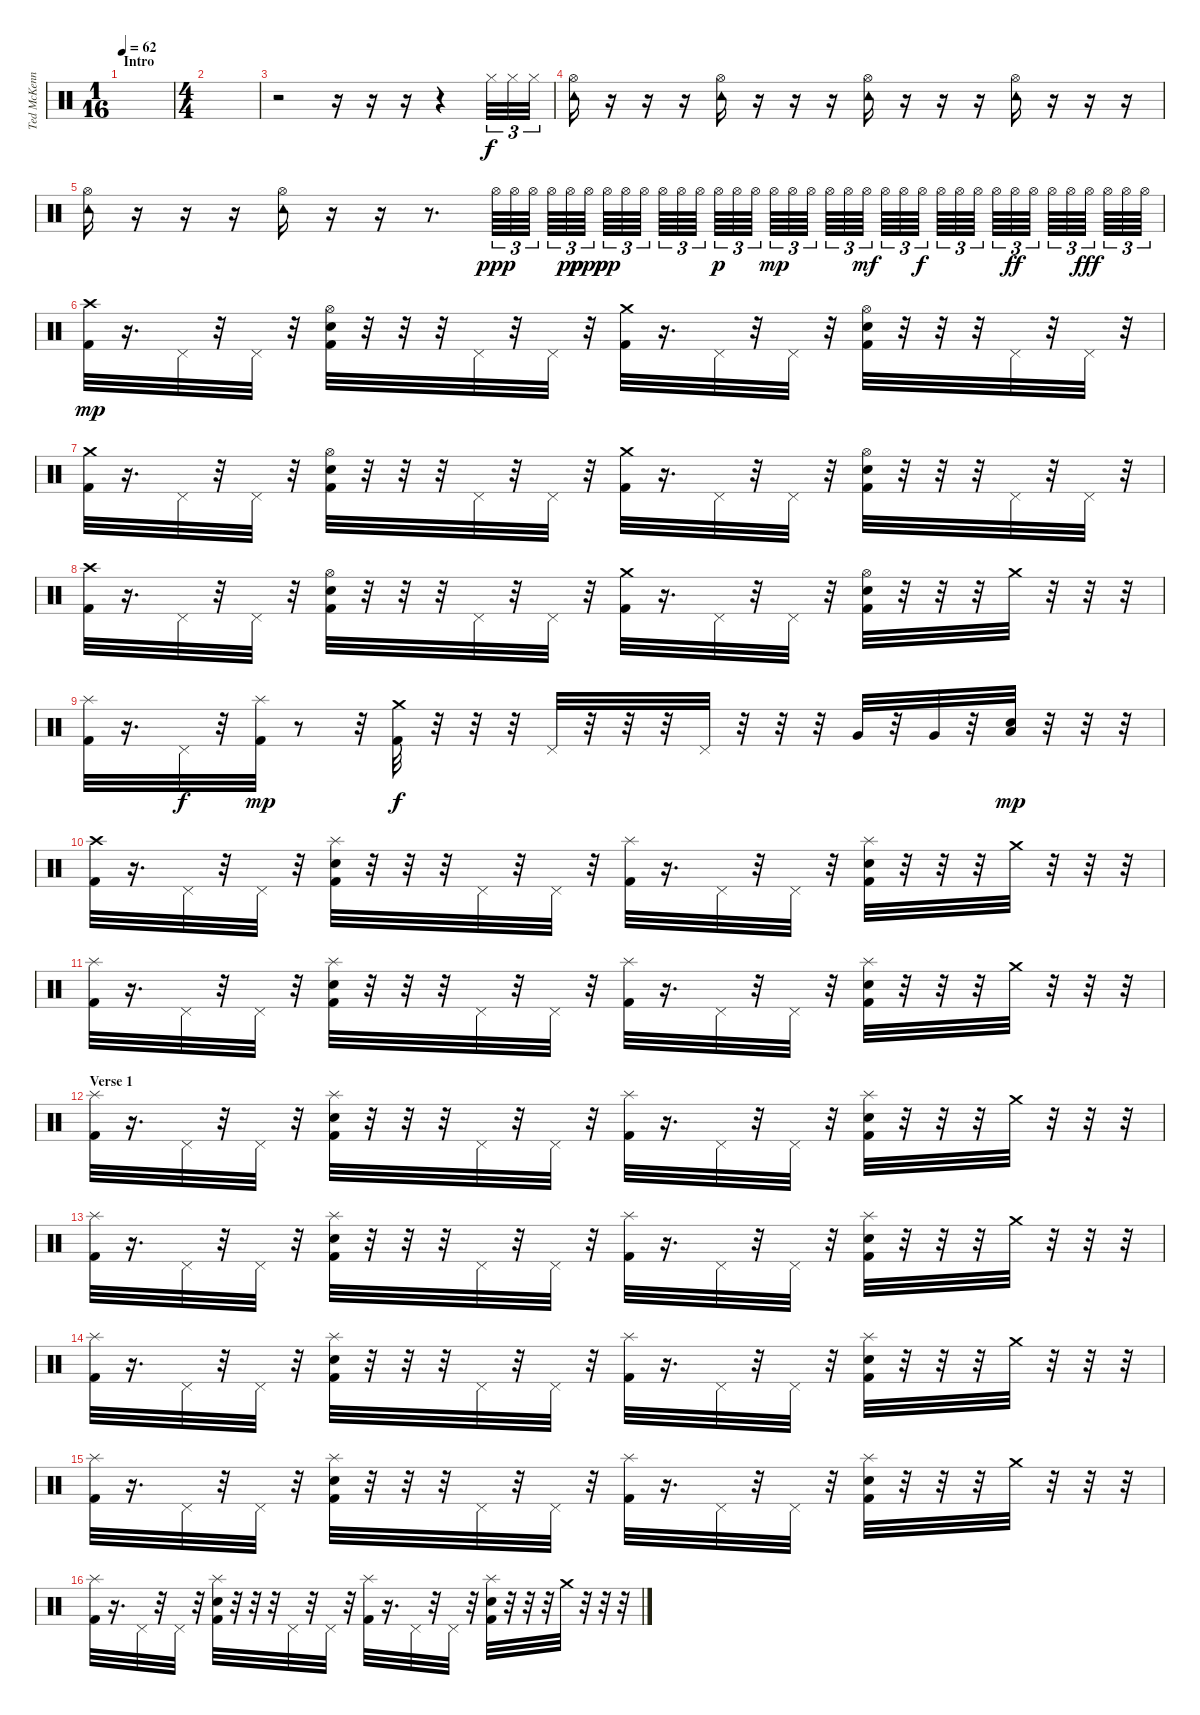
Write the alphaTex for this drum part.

\track ("Ted McKenna" "Ted McKenn") {instrument percussion}
\staff {score}
\articulation defaults
\ts (1 16)
\section ("" "Intro")
\tempo 62
\clef neutral
\ks c
|
\ts (4 4)
|
r.2 r.16 r.16 r.16 r.4 "Hi-Hat (closed)".32{tu (3 2)} "Hi-Hat (closed)".32{tu (3 2)} "Hi-Hat (closed)".32{tu (3 2)} |
("Tambourine (hit)" "Hi-Hat (open)").16 r.16 r.16 r.16 ("Tambourine (hit)" "Hi-Hat (open)").16 r.16 r.16 r.16 ("Tambourine (hit)" "Hi-Hat (open)").16 r.16 r.16 r.16 ("Tambourine (hit)" "Hi-Hat (open)").16 r.16 r.16 r.16 |
("Tambourine (hit)" "Hi-Hat (open)").16 r.16 r.16 r.16 ("Tambourine (hit)" "Hi-Hat (open)").16 r.16 r.16 r.8{d} "Hi-Hat (open)".64{tu (3 2) dy ppp} "Hi-Hat (open)".64{tu (3 2)} "Hi-Hat (open)".64{tu (3 2)} "Hi-Hat (open)".64{tu (3 2)} "Hi-Hat (open)".64{tu (3 2) dy pp} "Hi-Hat (open)".64{tu (3 2) dy ppp} "Hi-Hat (open)".64{tu (3 2) dy pp} "Hi-Hat (open)".64{tu (3 2)} "Hi-Hat (open)".64{tu (3 2)} "Hi-Hat (open)".64{tu (3 2)} "Hi-Hat (open)".64{tu (3 2)} "Hi-Hat (open)".64{tu (3 2)} "Hi-Hat (open)".64{tu (3 2) dy p} "Hi-Hat (open)".64{tu (3 2)} "Hi-Hat (open)".64{tu (3 2)} "Hi-Hat (open)".64{tu (3 2) dy mp} "Hi-Hat (open)".64{tu (3 2)} "Hi-Hat (open)".64{tu (3 2)} "Hi-Hat (open)".64{tu (3 2)} "Hi-Hat (open)".64{tu (3 2)} "Hi-Hat (open)".64{tu (3 2) dy mf} "Hi-Hat (open)".64{tu (3 2)} "Hi-Hat (open)".64{tu (3 2)} "Hi-Hat (open)".64{tu (3 2) dy f} "Hi-Hat (open)".64{tu (3 2)} "Hi-Hat (open)".64{tu (3 2)} "Hi-Hat (open)".64{tu (3 2)} "Hi-Hat (open)".64{tu (3 2)} "Hi-Hat (open)".64{tu (3 2) dy ff} "Hi-Hat (open)".64{tu (3 2)} "Hi-Hat (open)".64{tu (3 2)} "Hi-Hat (open)".64{tu (3 2)} "Hi-Hat (open)".64{tu (3 2) dy fff} "Hi-Hat (open)".64{tu (3 2)} "Hi-Hat (open)".64{tu (3 2)} "Hi-Hat (open)".64{tu (3 2)} |
("Crash high (hit)" "Kick (hit) 2").32{dy mp} r.16{d} "Pedal Hi-Hat (hit)".32 r.32 "Pedal Hi-Hat (hit)".32 r.32 ("Hi-Hat (open)" "Electric Snare (hit)" "Kick (hit) 2").32 r.32 r.32 r.32 "Pedal Hi-Hat (hit)".32 r.32 "Pedal Hi-Hat (hit)".32 r.32 ("Crash medium (hit)" "Kick (hit) 2").32 r.16{d} "Pedal Hi-Hat (hit)".32 r.32 "Pedal Hi-Hat (hit)".32 r.32 ("Hi-Hat (open)" "Electric Snare (hit)" "Kick (hit) 2").32 r.32 r.32 r.32 "Pedal Hi-Hat (hit)".32 r.32 "Pedal Hi-Hat (hit)".32 r.32 |
("Crash medium (hit)" "Kick (hit) 2").32 r.16{d} "Pedal Hi-Hat (hit)".32 r.32 "Pedal Hi-Hat (hit)".32 r.32 ("Hi-Hat (open)" "Electric Snare (hit)" "Kick (hit) 2").32 r.32 r.32 r.32 "Pedal Hi-Hat (hit)".32 r.32 "Pedal Hi-Hat (hit)".32 r.32 ("Crash medium (hit)" "Kick (hit) 2").32 r.16{d} "Pedal Hi-Hat (hit)".32 r.32 "Pedal Hi-Hat (hit)".32 r.32 ("Hi-Hat (open)" "Electric Snare (hit)" "Kick (hit) 2").32 r.32 r.32 r.32 "Pedal Hi-Hat (hit)".32 r.32 "Pedal Hi-Hat (hit)".32 r.32 |
("Crash high (hit)" "Kick (hit) 2").32 r.16{d} "Pedal Hi-Hat (hit)".32 r.32 "Pedal Hi-Hat (hit)".32 r.32 ("Hi-Hat (open)" "Electric Snare (hit)" "Kick (hit) 2").32 r.32 r.32 r.32 "Pedal Hi-Hat (hit)".32 r.32 "Pedal Hi-Hat (hit)".32 r.32 ("Crash medium (hit)" "Kick (hit) 2").32 r.16{d} "Pedal Hi-Hat (hit)".32 r.32 "Pedal Hi-Hat (hit)".32 r.32 ("Hi-Hat (open)" "Electric Snare (hit)" "Kick (hit) 2").32 r.32 r.32 r.32 "Crash medium (hit)".32 r.32 r.32 r.32 |
("Splash (hit)" "Kick (hit) 2").32 r.16{d} "Pedal Hi-Hat (hit)".32{dy f} r.32 ("Splash (hit)" "Kick (hit) 2").32{dy mp} r.8 r.32 ("Crash medium (hit)" "Kick (hit) 2").32{dy f} r.32 r.32 r.32 "Pedal Hi-Hat (hit)".32 r.32 r.32 r.32 "Pedal Hi-Hat (hit)".32 r.32 r.32 r.32 "Very Low Tom (hit)".32 r.32 "Very Low Tom (hit)".32 r.32 ("Low Tom (hit)" "Electric Snare (hit)").32{dy mp} r.32 r.32 r.32 |
("Crash high (hit)" "Kick (hit) 2").32 r.16{d} "Pedal Hi-Hat (hit)".32 r.32 "Pedal Hi-Hat (hit)".32 r.32 ("Splash (hit)" "Electric Snare (hit)" "Kick (hit) 2").32 r.32 r.32 r.32 "Pedal Hi-Hat (hit)".32 r.32 "Pedal Hi-Hat (hit)".32 r.32 ("Splash (hit)" "Kick (hit) 2").32 r.16{d} "Pedal Hi-Hat (hit)".32 r.32 "Pedal Hi-Hat (hit)".32 r.32 ("Splash (hit)" "Electric Snare (hit)" "Kick (hit) 2").32 r.32 r.32 r.32 "Crash medium (hit)".32 r.32 r.32 r.32 |
("Splash (hit)" "Kick (hit) 2").32 r.16{d} "Pedal Hi-Hat (hit)".32 r.32 "Pedal Hi-Hat (hit)".32 r.32 ("Splash (hit)" "Electric Snare (hit)" "Kick (hit) 2").32 r.32 r.32 r.32 "Pedal Hi-Hat (hit)".32 r.32 "Pedal Hi-Hat (hit)".32 r.32 ("Splash (hit)" "Kick (hit) 2").32 r.16{d} "Pedal Hi-Hat (hit)".32 r.32 "Pedal Hi-Hat (hit)".32 r.32 ("Splash (hit)" "Electric Snare (hit)" "Kick (hit) 2").32 r.32 r.32 r.32 "Crash medium (hit)".32 r.32 r.32 r.32 |
\section ("" "Verse 1")
("Splash (hit)" "Kick (hit) 2").32 r.16{d} "Pedal Hi-Hat (hit)".32 r.32 "Pedal Hi-Hat (hit)".32 r.32 ("Splash (hit)" "Electric Snare (hit)" "Kick (hit) 2").32 r.32 r.32 r.32 "Pedal Hi-Hat (hit)".32 r.32 "Pedal Hi-Hat (hit)".32 r.32 ("Splash (hit)" "Kick (hit) 2").32 r.16{d} "Pedal Hi-Hat (hit)".32 r.32 "Pedal Hi-Hat (hit)".32 r.32 ("Splash (hit)" "Electric Snare (hit)" "Kick (hit) 2").32 r.32 r.32 r.32 "Crash medium (hit)".32 r.32 r.32 r.32 |
("Splash (hit)" "Kick (hit) 2").32 r.16{d} "Pedal Hi-Hat (hit)".32 r.32 "Pedal Hi-Hat (hit)".32 r.32 ("Splash (hit)" "Electric Snare (hit)" "Kick (hit) 2").32 r.32 r.32 r.32 "Pedal Hi-Hat (hit)".32 r.32 "Pedal Hi-Hat (hit)".32 r.32 ("Splash (hit)" "Kick (hit) 2").32 r.16{d} "Pedal Hi-Hat (hit)".32 r.32 "Pedal Hi-Hat (hit)".32 r.32 ("Splash (hit)" "Electric Snare (hit)" "Kick (hit) 2").32 r.32 r.32 r.32 "Crash medium (hit)".32 r.32 r.32 r.32 |
("Splash (hit)" "Kick (hit) 2").32 r.16{d} "Pedal Hi-Hat (hit)".32 r.32 "Pedal Hi-Hat (hit)".32 r.32 ("Splash (hit)" "Electric Snare (hit)" "Kick (hit) 2").32 r.32 r.32 r.32 "Pedal Hi-Hat (hit)".32 r.32 "Pedal Hi-Hat (hit)".32 r.32 ("Splash (hit)" "Kick (hit) 2").32 r.16{d} "Pedal Hi-Hat (hit)".32 r.32 "Pedal Hi-Hat (hit)".32 r.32 ("Splash (hit)" "Electric Snare (hit)" "Kick (hit) 2").32 r.32 r.32 r.32 "Crash medium (hit)".32 r.32 r.32 r.32 |
("Splash (hit)" "Kick (hit) 2").32 r.16{d} "Pedal Hi-Hat (hit)".32 r.32 "Pedal Hi-Hat (hit)".32 r.32 ("Splash (hit)" "Electric Snare (hit)" "Kick (hit) 2").32 r.32 r.32 r.32 "Pedal Hi-Hat (hit)".32 r.32 "Pedal Hi-Hat (hit)".32 r.32 ("Splash (hit)" "Kick (hit) 2").32 r.16{d} "Pedal Hi-Hat (hit)".32 r.32 "Pedal Hi-Hat (hit)".32 r.32 ("Splash (hit)" "Electric Snare (hit)" "Kick (hit) 2").32 r.32 r.32 r.32 "Crash medium (hit)".32 r.32 r.32 r.32 |
("Splash (hit)" "Kick (hit) 2").32 r.16{d} "Pedal Hi-Hat (hit)".32 r.32 "Pedal Hi-Hat (hit)".32 r.32 ("Splash (hit)" "Electric Snare (hit)" "Kick (hit) 2").32 r.32 r.32 r.32 "Pedal Hi-Hat (hit)".32 r.32 "Pedal Hi-Hat (hit)".32 r.32 ("Splash (hit)" "Kick (hit) 2").32 r.16{d} "Pedal Hi-Hat (hit)".32 r.32 "Pedal Hi-Hat (hit)".32 r.32 ("Splash (hit)" "Electric Snare (hit)" "Kick (hit) 2").32 r.32 r.32 r.32 "Crash medium (hit)".32 r.32 r.32 r.32
